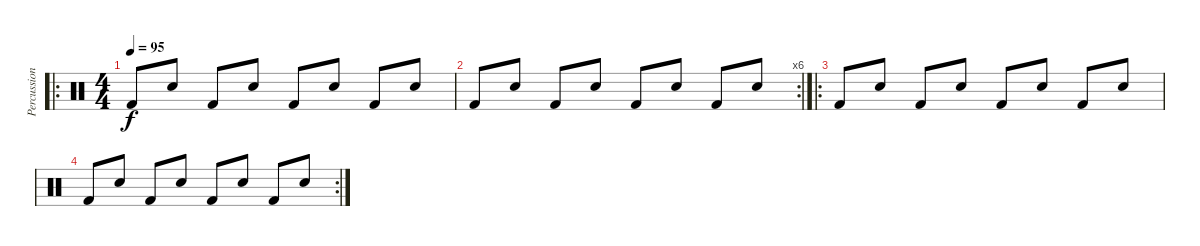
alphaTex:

\track ("Percussion" "Percussion") {instrument percussion}
\staff {score}
\articulation defaults
\ro
\ts (4 4)
\tempo 95
\clef neutral
\ks c "Kick (hit) 2".8{dy f} "Snare (hit) 2".8 "Kick (hit) 2".8 "Snare (hit) 2".8 "Kick (hit) 2".8 "Snare (hit) 2".8 "Kick (hit) 2".8 "Snare (hit) 2".8
|
\rc 6 "Kick (hit) 2".8 "Snare (hit) 2".8 "Kick (hit) 2".8 "Snare (hit) 2".8 "Kick (hit) 2".8 "Snare (hit) 2".8 "Kick (hit) 2".8 "Snare (hit) 2".8
|
\ro "Kick (hit) 2".8 "Snare (hit) 2".8 "Kick (hit) 2".8 "Snare (hit) 2".8 "Kick (hit) 2".8 "Snare (hit) 2".8 "Kick (hit) 2".8 "Snare (hit) 2".8
|
\rc 2 "Kick (hit) 2".8 "Snare (hit) 2".8 "Kick (hit) 2".8 "Snare (hit) 2".8 "Kick (hit) 2".8 "Snare (hit) 2".8 "Kick (hit) 2".8 "Snare (hit) 2".8
